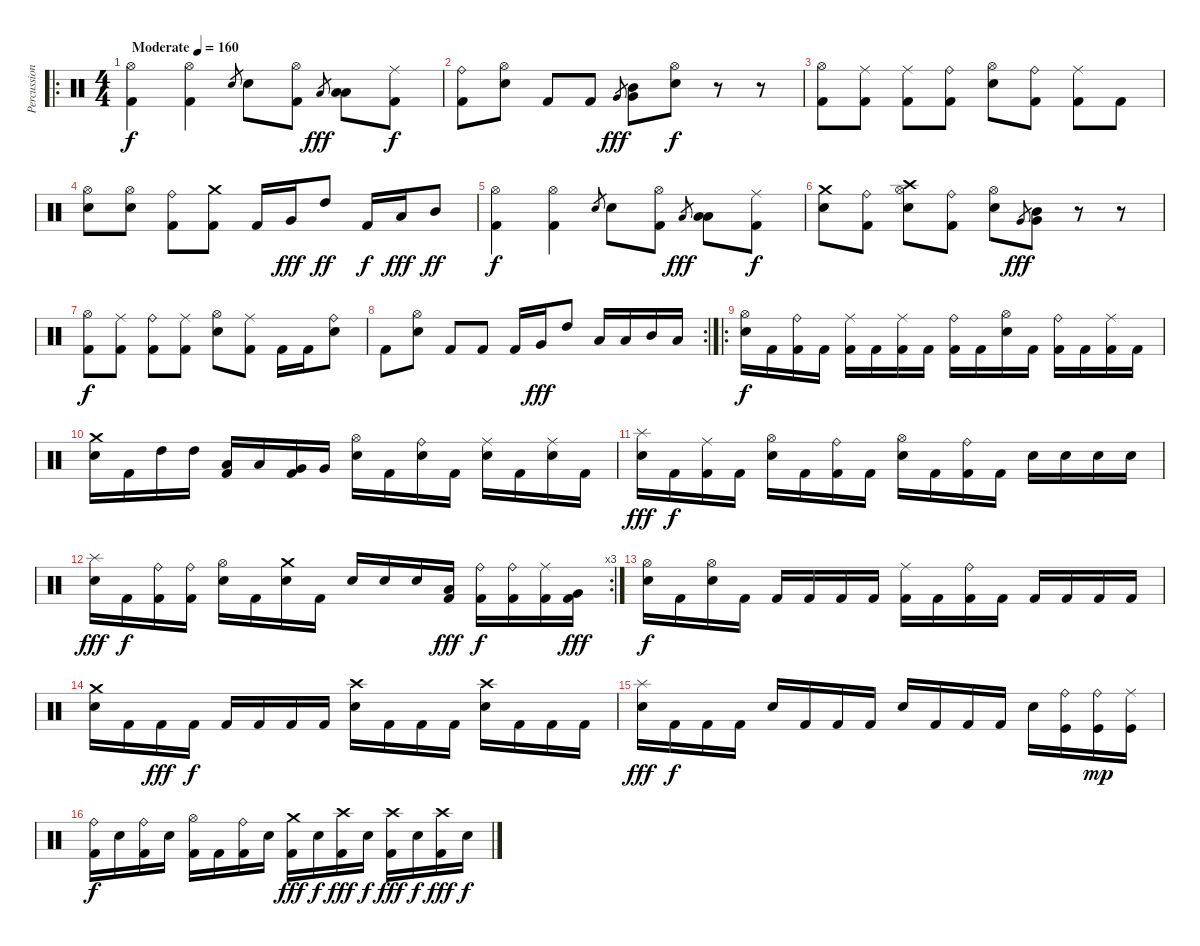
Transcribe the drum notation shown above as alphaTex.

\track ("Percussion" "Percussion") {instrument percussion}
\staff {score}
\articulation defaults
\ro
\ts (4 4)
\tempo (160 "Moderate")
\clef neutral
\ks c
("Hi-Hat (open)" "Kick (hit) 2").4{dy f} ("Hi-Hat (open)" "Kick (hit) 2").4 "Electric Snare (hit)".8{gr} "Electric Snare (hit)".8 ("Hi-Hat (open)" "Kick (hit) 2").8 "Low Floor Tom (hit)".8{gr dy fff} ("Low Floor Tom (hit)" "Low Tom (hit)").8 ("Ride (middle)" "Kick (hit) 2").8{dy f} |
("Ride (bell)" "Kick (hit) 2").8 ("Hi-Hat (open)" "Electric Snare (hit)").8 "Kick (hit) 2".8 "Kick (hit) 2".8 "Very Low Tom (hit)".8{gr dy fff} ("Very Low Tom (hit)" "Mid Tom (hit)").8 ("Hi-Hat (open)" "Electric Snare (hit)").8{dy f} r.8 r.8 |
("Hi-Hat (open)" "Kick (hit) 2").8 ("Ride (middle)" "Kick (hit) 2").8 ("Ride (middle)" "Kick (hit) 2").8 ("Ride (bell)" "Kick (hit) 2").8 ("Hi-Hat (open)" "Electric Snare (hit)").8 ("Ride (bell)" "Kick (hit) 2").8 ("Ride (middle)" "Kick (hit) 2").8 "Kick (hit) 2".8 |
("Hi-Hat (open)" "Electric Snare (hit)").8 ("Hi-Hat (open)" "Electric Snare (hit)").8 ("Ride (bell)" "Kick (hit) 2").8 ("Crash medium (hit)" "Kick (hit) 2").8 "Kick (hit) 2".16 "Very Low Tom (hit)".16{dy fff} "High Tom (hit)".8{dy ff} "Kick (hit) 2".16{dy f} "Low Floor Tom (hit)".16{dy fff} "Mid Tom (hit)".8{dy ff} |
("Hi-Hat (open)" "Kick (hit) 2").4{dy f} ("Hi-Hat (open)" "Kick (hit) 2").4 "Electric Snare (hit)".8{gr} "Electric Snare (hit)".8 ("Hi-Hat (open)" "Kick (hit) 2").8 "Low Floor Tom (hit)".8{gr dy fff} ("Low Floor Tom (hit)" "Low Tom (hit)").8 ("Ride (middle)" "Kick (hit) 2").8{dy f} |
("Crash medium (hit)" "Electric Snare (hit)").8 ("Ride (bell)" "Kick (hit) 2").8 ("Crash high (hit)" "Hi-Hat (open)" "Electric Snare (hit)").8 ("Ride (bell)" "Kick (hit) 2").8 ("Hi-Hat (open)" "Electric Snare (hit)").8 "Very Low Tom (hit)".8{gr dy fff} ("Very Low Tom (hit)" "Mid Tom (hit)").8 r.8 r.8 |
("Hi-Hat (open)" "Kick (hit) 2").8{dy f} ("Ride (middle)" "Kick (hit) 2").8 ("Ride (bell)" "Kick (hit) 2").8 ("Ride (middle)" "Kick (hit) 2").8 ("Hi-Hat (open)" "Electric Snare (hit)").8 ("Ride (middle)" "Kick (hit) 2").8 "Kick (hit) 2".16 "Kick (hit) 2".16 ("Ride (bell)" "Electric Snare (hit)").8 |
\rc 2 "Kick (hit) 2".8
("Hi-Hat (open)" "Electric Snare (hit)").8 "Kick (hit) 2".8 "Kick (hit) 2".8 "Kick (hit) 2".16 "Very Low Tom (hit)".16{dy fff} "High Tom (hit)".8 "Low Tom (hit)".16 "Low Floor Tom (hit)".16 "Mid Tom (hit)".16 "Low Tom (hit)".16 |
\ro
("Hi-Hat (open)" "Electric Snare (hit)").16{dy f} "Kick (hit) 2".16 ("Ride (bell)" "Kick (hit) 2").16 "Kick (hit) 2".16 ("Ride (middle)" "Kick (hit) 2").16 "Kick (hit) 2".16 ("Ride (middle)" "Kick (hit) 2").16 "Kick (hit) 2".16 ("Ride (bell)" "Kick (hit) 2").16 "Kick (hit) 2".16 ("Hi-Hat (open)" "Electric Snare (hit)").16 "Kick (hit) 2".16 ("Ride (bell)" "Kick (hit) 2").16 "Kick (hit) 2".16 ("Ride (middle)" "Kick (hit) 2").16 "Kick (hit) 2".16 |
("Crash medium (hit)" "Electric Snare (hit)").16 "Kick (hit) 2".16 "High Tom (hit)".16 "High Tom (hit)".16 ("Low Tom (hit)" "Kick (hit) 2").16 "Low Tom (hit)".16 ("Very Low Tom (hit)" "Kick (hit) 2").16 "Very Low Tom (hit)".16 ("Hi-Hat (open)" "Electric Snare (hit)").16 "Kick (hit) 2".16 ("Ride (bell)" "Electric Snare (hit)").16 "Kick (hit) 2".16 ("Ride (middle)" "Electric Snare (hit)").16 "Kick (hit) 2".16 ("Ride (middle)" "Electric Snare (hit)").16 "Kick (hit) 2".16 |
("Splash (hit)" "Electric Snare (hit)").16{dy fff} "Kick (hit) 2".16{dy f} ("Ride (middle)" "Kick (hit) 2").16 "Kick (hit) 2".16 ("Hi-Hat (open)" "Electric Snare (hit)").16 "Kick (hit) 2".16 ("Ride (bell)" "Kick (hit) 2").16 "Kick (hit) 2".16 ("Hi-Hat (open)" "Electric Snare (hit)").16 "Kick (hit) 2".16 ("Ride (bell)" "Kick (hit) 2").16 "Kick (hit) 2".16 "Electric Snare (hit)".16 "Electric Snare (hit)".16 "Electric Snare (hit)".16 "Electric Snare (hit)".16 |
\rc 3
("Splash (hit)" "Electric Snare (hit)").16{dy fff} "Kick (hit) 2".16{dy f} ("Ride (bell)" "Kick (hit) 2").16 ("Ride (bell)" "Kick (hit) 2").16 ("Hi-Hat (open)" "Electric Snare (hit)").16 "Kick (hit) 2".16 ("Crash medium (hit)" "Electric Snare (hit)").16 "Kick (hit) 2".16 "Electric Snare (hit)".16 "Electric Snare (hit)".16 "Electric Snare (hit)".16 ("Low Tom (hit)" "Kick (hit) 2").16{dy fff} ("Ride (bell)" "Kick (hit) 2").16{dy f} ("Ride (bell)" "Kick (hit) 2").16 ("Ride (middle)" "Kick (hit) 2").16 ("Very Low Tom (hit)" "Kick (hit) 2").16{dy fff} |
("Hi-Hat (open)" "Electric Snare (hit)").16{dy f} "Kick (hit) 2".16 ("Hi-Hat (open)" "Electric Snare (hit)").16 "Kick (hit) 2".16 "Kick (hit) 2".16 "Kick (hit) 2".16 "Kick (hit) 2".16 "Kick (hit) 2".16 ("Ride (middle)" "Kick (hit) 2").16 "Kick (hit) 2".16 ("Ride (bell)" "Kick (hit) 2").16 "Kick (hit) 2".16 "Kick (hit) 2".16 "Kick (hit) 2".16 "Kick (hit) 2".16 "Kick (hit) 2".16 |
("Crash medium (hit)" "Electric Snare (hit)").16 "Kick (hit) 2".16 "Kick (hit) 2".16{dy fff} "Kick (hit) 2".16{dy f} "Kick (hit) 2".16 "Kick (hit) 2".16 "Kick (hit) 2".16 "Kick (hit) 2".16 ("Crash high (hit)" "Electric Snare (hit)").16 "Kick (hit) 2".16 "Kick (hit) 2".16 "Kick (hit) 2".16 ("Crash high (hit)" "Electric Snare (hit)").16 "Kick (hit) 2".16 "Kick (hit) 2".16 "Kick (hit) 2".16 |
("Splash (hit)" "Electric Snare (hit)").16{dy fff} "Kick (hit) 2".16{dy f} "Kick (hit) 2".16 "Kick (hit) 2".16 "Electric Snare (hit)".16 "Kick (hit) 2".16 "Kick (hit) 2".16 "Kick (hit) 2".16 "Electric Snare (hit)".16 "Kick (hit) 2".16 "Kick (hit) 2".16 "Kick (hit) 2".16 "Electric Snare (hit)".16 ("Ride (bell)" "Kick (hit)").16 ("Ride (bell)" "Kick (hit)").16{dy mp} ("Ride (middle)" "Kick (hit)").16 |
("Ride (bell)" "Kick (hit) 2").16{dy f} "Electric Snare (hit)".16 ("Ride (bell)" "Kick (hit) 2").16 "Electric Snare (hit)".16 ("Hi-Hat (open)" "Kick (hit) 2").16 "Kick (hit) 2".16 ("Ride (bell)" "Kick (hit) 2").16 "Electric Snare (hit)".16 ("Crash medium (hit)" "Kick (hit) 2").16{dy fff} "Electric Snare (hit)".16{dy f} ("Crash high (hit)" "Kick (hit) 2").16{dy fff} "Electric Snare (hit)".16{dy f} ("Crash high (hit)" "Kick (hit) 2").16{dy fff} "Electric Snare (hit)".16{dy f} ("Crash high (hit)" "Kick (hit) 2").16{dy fff} "Electric Snare (hit)".16{dy f}
